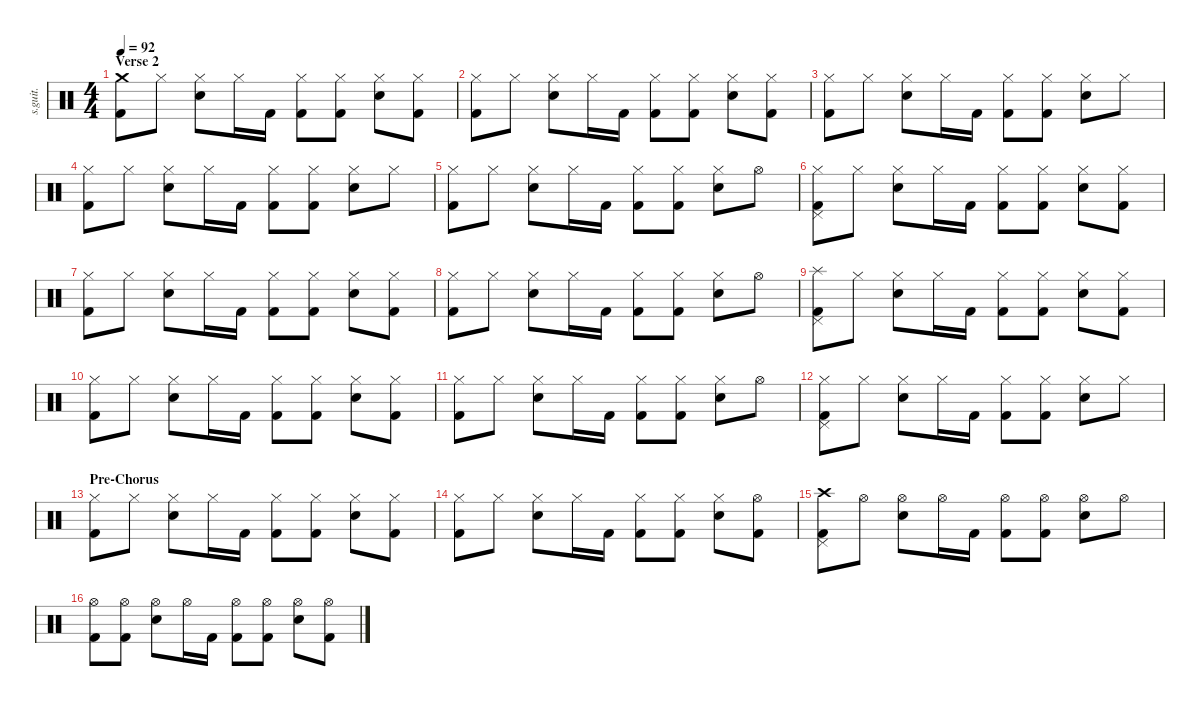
\defaultSystemsLayout 4
\hideDynamics
\bracketExtendMode nobrackets
\track ("Phil Selway | DW Drum Kit | Drums" "s.guit.") {instrument percussion}
\staff {score}
\articulation defaults
\ts (4 4)
\section ("" "Verse 2")
\tempo 92
\clef neutral
\ks c
("Crash medium (hit)" "Kick (hit) 2").8{dy f} "Hi-Hat (closed)".8 ("Hi-Hat (closed)" "Snare (hit) 2").8 "Hi-Hat (closed)".16 "Kick (hit) 2".16 ("Hi-Hat (closed)" "Kick (hit) 2").8 ("Hi-Hat (closed)" "Kick (hit) 2").8 ("Hi-Hat (closed)" "Snare (hit) 2").8 ("Hi-Hat (closed)" "Kick (hit) 2").8 |
("Hi-Hat (closed)" "Kick (hit) 2").8 "Hi-Hat (closed)".8 ("Hi-Hat (closed)" "Snare (hit) 2").8 "Hi-Hat (closed)".16 "Kick (hit) 2".16 ("Hi-Hat (closed)" "Kick (hit) 2").8 ("Hi-Hat (closed)" "Kick (hit) 2").8 ("Hi-Hat (closed)" "Snare (hit) 2").8 ("Hi-Hat (closed)" "Kick (hit) 2").8 |
("Hi-Hat (closed)" "Kick (hit) 2").8 "Hi-Hat (closed)".8 ("Hi-Hat (closed)" "Snare (hit) 2").8 "Hi-Hat (closed)".16 "Kick (hit) 2".16 ("Hi-Hat (closed)" "Kick (hit) 2").8 ("Hi-Hat (closed)" "Kick (hit) 2").8 ("Hi-Hat (closed)" "Snare (hit) 2").8 "Hi-Hat (closed)".8 |
("Hi-Hat (closed)" "Kick (hit) 2").8 "Hi-Hat (closed)".8 ("Hi-Hat (closed)" "Snare (hit) 2").8 "Hi-Hat (closed)".16 "Kick (hit) 2".16 ("Hi-Hat (closed)" "Kick (hit) 2").8 ("Hi-Hat (closed)" "Kick (hit) 2").8 ("Hi-Hat (closed)" "Snare (hit) 2").8 "Hi-Hat (closed)".8 |
("Hi-Hat (closed)" "Kick (hit) 2").8 "Hi-Hat (closed)".8 ("Hi-Hat (closed)" "Snare (hit) 2").8 "Hi-Hat (closed)".16 "Kick (hit) 2".16 ("Hi-Hat (closed)" "Kick (hit) 2").8 ("Hi-Hat (closed)" "Kick (hit) 2").8 ("Hi-Hat (closed)" "Snare (hit) 2").8 "Hi-Hat (open)".8 |
("Hi-Hat (closed)" "Kick (hit) 2" "Pedal Hi-Hat (hit)").8 "Hi-Hat (closed)".8 ("Hi-Hat (closed)" "Snare (hit) 2").8 "Hi-Hat (closed)".16 "Kick (hit) 2".16 ("Hi-Hat (closed)" "Kick (hit) 2").8 ("Hi-Hat (closed)" "Kick (hit) 2").8 ("Hi-Hat (closed)" "Snare (hit) 2").8 ("Hi-Hat (closed)" "Kick (hit) 2").8 |
("Hi-Hat (closed)" "Kick (hit) 2").8 "Hi-Hat (closed)".8 ("Hi-Hat (closed)" "Snare (hit) 2").8 "Hi-Hat (closed)".16 "Kick (hit) 2".16 ("Hi-Hat (closed)" "Kick (hit) 2").8 ("Hi-Hat (closed)" "Kick (hit) 2").8 ("Hi-Hat (closed)" "Snare (hit) 2").8 ("Hi-Hat (closed)" "Kick (hit) 2").8 |
("Hi-Hat (closed)" "Kick (hit) 2").8 "Hi-Hat (closed)".8 ("Hi-Hat (closed)" "Snare (hit) 2").8 "Hi-Hat (closed)".16 "Kick (hit) 2".16 ("Hi-Hat (closed)" "Kick (hit) 2").8 ("Hi-Hat (closed)" "Kick (hit) 2").8 ("Hi-Hat (closed)" "Snare (hit) 2").8 "Hi-Hat (open)".8 |
("Splash (hit)" "Kick (hit) 2" "Pedal Hi-Hat (hit)").8 "Hi-Hat (closed)".8 ("Hi-Hat (closed)" "Snare (hit) 2").8 "Hi-Hat (closed)".16 "Kick (hit) 2".16 ("Hi-Hat (closed)" "Kick (hit) 2").8 ("Hi-Hat (closed)" "Kick (hit) 2").8 ("Hi-Hat (closed)" "Snare (hit) 2").8 ("Hi-Hat (closed)" "Kick (hit) 2").8 |
("Hi-Hat (closed)" "Kick (hit) 2").8 "Hi-Hat (closed)".8 ("Hi-Hat (closed)" "Snare (hit) 2").8 "Hi-Hat (closed)".16 "Kick (hit) 2".16 ("Hi-Hat (closed)" "Kick (hit) 2").8 ("Hi-Hat (closed)" "Kick (hit) 2").8 ("Hi-Hat (closed)" "Snare (hit) 2").8 ("Hi-Hat (closed)" "Kick (hit) 2").8 |
("Hi-Hat (closed)" "Kick (hit) 2").8 "Hi-Hat (closed)".8 ("Hi-Hat (closed)" "Snare (hit) 2").8 "Hi-Hat (closed)".16 "Kick (hit) 2".16 ("Hi-Hat (closed)" "Kick (hit) 2").8 ("Hi-Hat (closed)" "Kick (hit) 2").8 ("Hi-Hat (closed)" "Snare (hit) 2").8 "Hi-Hat (open)".8 |
("Hi-Hat (closed)" "Kick (hit) 2" "Pedal Hi-Hat (hit)").8 "Hi-Hat (closed)".8 ("Hi-Hat (closed)" "Snare (hit) 2").8 "Hi-Hat (closed)".16 "Kick (hit) 2".16 ("Hi-Hat (closed)" "Kick (hit) 2").8 ("Hi-Hat (closed)" "Kick (hit) 2").8 ("Hi-Hat (closed)" "Snare (hit) 2").8 "Hi-Hat (closed)".8 |
\section ("" "Pre-Chorus")
("Hi-Hat (closed)" "Kick (hit) 2").8 "Hi-Hat (closed)".8 ("Hi-Hat (closed)" "Snare (hit) 2").8 "Hi-Hat (closed)".16 "Kick (hit) 2".16 ("Hi-Hat (closed)" "Kick (hit) 2").8 ("Hi-Hat (closed)" "Kick (hit) 2").8 ("Hi-Hat (closed)" "Snare (hit) 2").8 ("Hi-Hat (closed)" "Kick (hit) 2").8 |
("Hi-Hat (closed)" "Kick (hit) 2").8 "Hi-Hat (closed)".8 ("Hi-Hat (closed)" "Snare (hit) 2").8 "Hi-Hat (closed)".16 "Kick (hit) 2".16 ("Hi-Hat (closed)" "Kick (hit) 2").8 ("Hi-Hat (closed)" "Kick (hit) 2").8 ("Hi-Hat (closed)" "Snare (hit) 2").8 ("Hi-Hat (open)" "Kick (hit) 2").8 |
("Crash high (hit)" "Kick (hit) 2" "Pedal Hi-Hat (hit)").8{dy ff} "Hi-Hat (open)".8 ("Hi-Hat (open)" "Snare (hit) 2").8 "Hi-Hat (open)".16 "Kick (hit) 2".16 ("Hi-Hat (open)" "Kick (hit) 2").8 ("Hi-Hat (open)" "Kick (hit) 2").8 ("Hi-Hat (open)" "Snare (hit) 2").8 "Hi-Hat (open)".8 |
("Hi-Hat (open)" "Kick (hit) 2").8 ("Hi-Hat (open)" "Kick (hit) 2").8 ("Hi-Hat (open)" "Snare (hit) 2").8 "Hi-Hat (open)".16 "Kick (hit) 2".16 ("Hi-Hat (open)" "Kick (hit) 2").8 ("Hi-Hat (open)" "Kick (hit) 2").8 ("Hi-Hat (open)" "Snare (hit) 2").8 ("Hi-Hat (open)" "Kick (hit) 2").8
